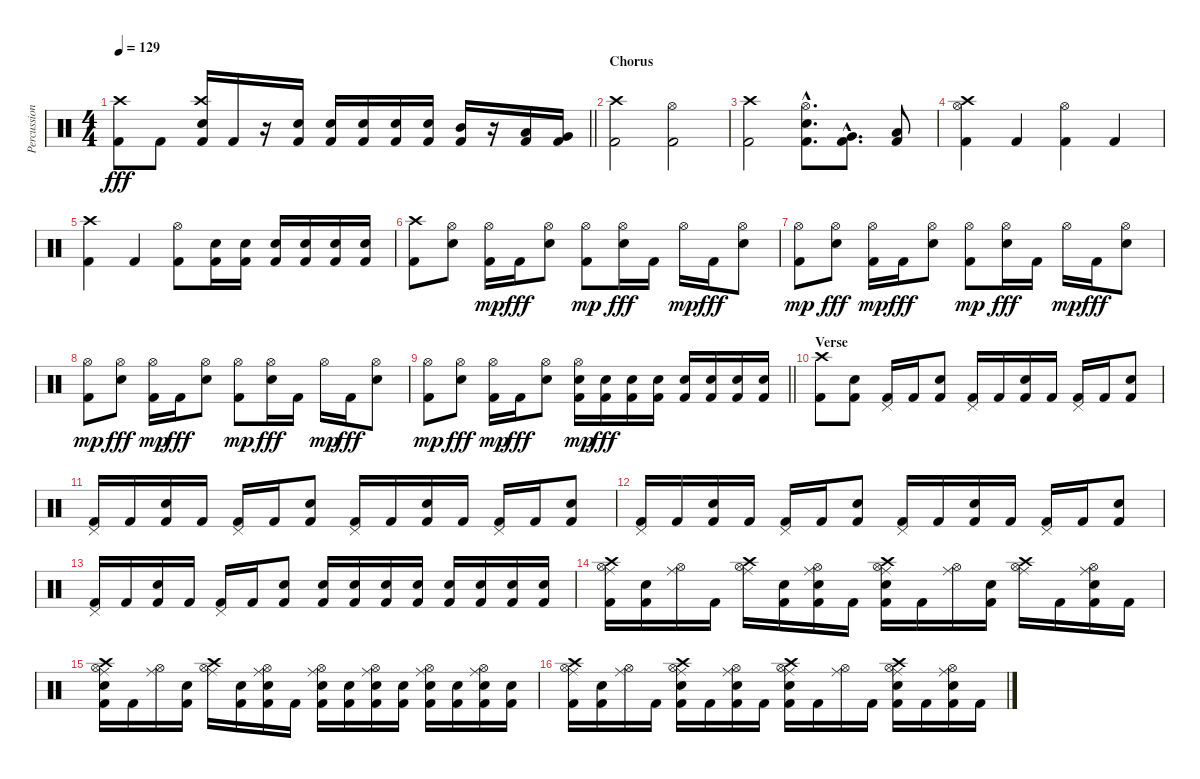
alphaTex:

\track ("Percussions" "Percussion") {instrument percussion}
\staff {score}
\articulation defaults
\ts (4 4)
\tempo 129
\clef neutral
\barLineRight lightlight
\ks c
("Kick (hit) 2" "Crash high (hit)").8{dy fff} "Kick (hit) 2".8 ("Kick (hit) 2" "Snare (hit) 2" "Crash high (hit)").16 "Kick (hit) 2".16 r.16 ("Kick (hit) 2" "Snare (hit) 2").16 ("Kick (hit) 2" "Snare (hit) 2").16 ("Kick (hit) 2" "Snare (hit) 2").16 ("Kick (hit) 2" "Snare (hit) 2").16 ("Kick (hit) 2" "Snare (hit) 2").16 ("Kick (hit) 2" "Mid Tom (hit)").16 r.16 ("Kick (hit) 2" "Low Tom (hit)").16 ("Kick (hit) 2" "Very Low Tom (hit)").16 |
\section ("" "Chorus")
("Kick (hit) 2" "Crash high (hit)").2 ("Kick (hit) 2" "Hi-Hat (open)").2 |
("Kick (hit) 2" "Crash high (hit)").2 ("Kick (hit) 2"{hac} "Snare (hit) 2"{hac} "Hi-Hat (open)"{hac}).8{d} ("Kick (hit) 2"{hac} "Very Low Tom (hit)"{hac}).8{d} ("Kick (hit) 2" "Low Tom (hit)").8 |
("Kick (hit) 2" "Crash high (hit)" "Hi-Hat (open)").4 "Kick (hit) 2".4 ("Kick (hit) 2" "Hi-Hat (open)").4 "Kick (hit) 2".4 |
("Kick (hit) 2" "Crash high (hit)").4 "Kick (hit) 2".4 ("Kick (hit) 2" "Hi-Hat (open)").8 ("Kick (hit) 2" "Snare (hit) 2").16 ("Kick (hit) 2" "Snare (hit) 2").16 ("Kick (hit) 2" "Snare (hit) 2").16 ("Kick (hit) 2" "Snare (hit) 2").16 ("Kick (hit) 2" "Snare (hit) 2").16 ("Kick (hit) 2" "Snare (hit) 2").16 |
("Kick (hit) 2" "Crash high (hit)").8 ("Snare (hit) 2" "Hi-Hat (open)").8 ("Kick (hit) 2" "Hi-Hat (open)").16{dy mp} "Kick (hit) 2".16{dy fff} ("Snare (hit) 2" "Hi-Hat (open)").8 ("Kick (hit) 2" "Hi-Hat (open)").8{dy mp} ("Snare (hit) 2" "Hi-Hat (open)").16{dy fff} "Kick (hit) 2".16 "Hi-Hat (open)".16{dy mp} "Kick (hit) 2".16{dy fff} ("Snare (hit) 2" "Hi-Hat (open)").8 |
("Kick (hit) 2" "Hi-Hat (open)").8{dy mp} ("Snare (hit) 2" "Hi-Hat (open)").8{dy fff} ("Kick (hit) 2" "Hi-Hat (open)").16{dy mp} "Kick (hit) 2".16{dy fff} ("Snare (hit) 2" "Hi-Hat (open)").8 ("Kick (hit) 2" "Hi-Hat (open)").8{dy mp} ("Snare (hit) 2" "Hi-Hat (open)").16{dy fff} "Kick (hit) 2".16 "Hi-Hat (open)".16{dy mp} "Kick (hit) 2".16{dy fff} ("Snare (hit) 2" "Hi-Hat (open)").8 |
("Kick (hit) 2" "Hi-Hat (open)").8{dy mp} ("Snare (hit) 2" "Hi-Hat (open)").8{dy fff} ("Kick (hit) 2" "Hi-Hat (open)").16{dy mp} "Kick (hit) 2".16{dy fff} ("Snare (hit) 2" "Hi-Hat (open)").8 ("Kick (hit) 2" "Hi-Hat (open)").8{dy mp} ("Snare (hit) 2" "Hi-Hat (open)").16{dy fff} "Kick (hit) 2".16 "Hi-Hat (open)".16{dy mp} "Kick (hit) 2".16{dy fff} ("Snare (hit) 2" "Hi-Hat (open)").8 |
\barLineRight lightlight
("Kick (hit) 2" "Hi-Hat (open)").8{dy mp} ("Snare (hit) 2" "Hi-Hat (open)").8{dy fff} ("Kick (hit) 2" "Hi-Hat (open)").16{dy mp} "Kick (hit) 2".16{dy fff} ("Snare (hit) 2" "Hi-Hat (open)").8 ("Kick (hit) 2" "Snare (hit) 2" "Hi-Hat (open)").16{dy mp} ("Kick (hit) 2" "Snare (hit) 2").16{dy fff} ("Kick (hit) 2" "Snare (hit) 2").16 ("Kick (hit) 2" "Snare (hit) 2").16 ("Kick (hit) 2" "Snare (hit) 2").16 ("Kick (hit) 2" "Snare (hit) 2").16 ("Kick (hit) 2" "Snare (hit) 2").16 ("Kick (hit) 2" "Snare (hit) 2").16 |
\section ("" "Verse")
("Kick (hit) 2" "Crash high (hit)").8 ("Kick (hit) 2" "Snare (hit) 2").8 ("Kick (hit) 2" "Pedal Hi-Hat (hit)").16 "Kick (hit) 2".16 ("Kick (hit) 2" "Snare (hit) 2").8 ("Kick (hit) 2" "Pedal Hi-Hat (hit)").16 "Kick (hit) 2".16 ("Kick (hit) 2" "Snare (hit) 2").16 "Kick (hit) 2".16 ("Kick (hit) 2" "Pedal Hi-Hat (hit)").16 "Kick (hit) 2".16 ("Kick (hit) 2" "Snare (hit) 2").8 |
("Kick (hit) 2" "Pedal Hi-Hat (hit)").16 "Kick (hit) 2".16 ("Kick (hit) 2" "Snare (hit) 2").16 "Kick (hit) 2".16 ("Kick (hit) 2" "Pedal Hi-Hat (hit)").16 "Kick (hit) 2".16 ("Kick (hit) 2" "Snare (hit) 2").8 ("Kick (hit) 2" "Pedal Hi-Hat (hit)").16 "Kick (hit) 2".16 ("Kick (hit) 2" "Snare (hit) 2").16 "Kick (hit) 2".16 ("Kick (hit) 2" "Pedal Hi-Hat (hit)").16 "Kick (hit) 2".16 ("Kick (hit) 2" "Snare (hit) 2").8 |
("Kick (hit) 2" "Pedal Hi-Hat (hit)").16 "Kick (hit) 2".16 ("Kick (hit) 2" "Snare (hit) 2").16 "Kick (hit) 2".16 ("Kick (hit) 2" "Pedal Hi-Hat (hit)").16 "Kick (hit) 2".16 ("Kick (hit) 2" "Snare (hit) 2").8 ("Kick (hit) 2" "Pedal Hi-Hat (hit)").16 "Kick (hit) 2".16 ("Kick (hit) 2" "Snare (hit) 2").16 "Kick (hit) 2".16 ("Kick (hit) 2" "Pedal Hi-Hat (hit)").16 "Kick (hit) 2".16 ("Kick (hit) 2" "Snare (hit) 2").8 |
("Kick (hit) 2" "Pedal Hi-Hat (hit)").16 "Kick (hit) 2".16 ("Kick (hit) 2" "Snare (hit) 2").16 "Kick (hit) 2".16 ("Kick (hit) 2" "Pedal Hi-Hat (hit)").16 "Kick (hit) 2".16 ("Kick (hit) 2" "Snare (hit) 2").8 ("Kick (hit) 2" "Snare (hit) 2").16 ("Kick (hit) 2" "Snare (hit) 2").16 ("Kick (hit) 2" "Snare (hit) 2").16 ("Kick (hit) 2" "Snare (hit) 2").16 ("Kick (hit) 2" "Snare (hit) 2").16 ("Kick (hit) 2" "Snare (hit) 2").16 ("Kick (hit) 2" "Snare (hit) 2").16 ("Kick (hit) 2" "Snare (hit) 2").16 |
("Kick (hit) 2" "Hi-Hat (open)" "Crash high (hit)" "Ride (middle)").16 ("Kick (hit) 2" "Snare (hit) 2").16 ("Hi-Hat (open)" "Ride (middle)").16 "Kick (hit) 2".16 ("Hi-Hat (open)" "Crash high (hit)" "Ride (middle)").16 ("Kick (hit) 2" "Snare (hit) 2").16 ("Kick (hit) 2" "Snare (hit) 2" "Hi-Hat (open)" "Ride (middle)").16 "Kick (hit) 2".16 ("Kick (hit) 2" "Snare (hit) 2" "Hi-Hat (open)" "Crash high (hit)" "Ride (middle)").16 "Kick (hit) 2".16 ("Hi-Hat (open)" "Ride (middle)").16 ("Kick (hit) 2" "Snare (hit) 2").16 ("Hi-Hat (open)" "Crash high (hit)" "Ride (middle)").16 "Kick (hit) 2".16 ("Kick (hit) 2" "Snare (hit) 2" "Hi-Hat (open)" "Ride (middle)").16 "Kick (hit) 2".16 |
("Kick (hit) 2" "Snare (hit) 2" "Hi-Hat (open)" "Crash high (hit)" "Ride (middle)").16 "Kick (hit) 2".16 ("Hi-Hat (open)" "Ride (middle)").16 ("Kick (hit) 2" "Snare (hit) 2").16 ("Hi-Hat (open)" "Crash high (hit)" "Ride (middle)").16 ("Kick (hit) 2" "Snare (hit) 2").16 ("Kick (hit) 2" "Snare (hit) 2" "Hi-Hat (open)" "Ride (middle)").16 "Kick (hit) 2".16 ("Kick (hit) 2" "Snare (hit) 2" "Hi-Hat (open)" "Ride (middle)").16 ("Kick (hit) 2" "Snare (hit) 2").16 ("Kick (hit) 2" "Snare (hit) 2" "Hi-Hat (open)" "Ride (middle)").16 ("Kick (hit) 2" "Snare (hit) 2").16 ("Kick (hit) 2" "Snare (hit) 2" "Hi-Hat (open)" "Ride (middle)").16 ("Kick (hit) 2" "Snare (hit) 2").16 ("Kick (hit) 2" "Snare (hit) 2" "Hi-Hat (open)" "Ride (middle)").16 ("Kick (hit) 2" "Snare (hit) 2").16 |
("Kick (hit) 2" "Hi-Hat (open)" "Crash high (hit)" "Ride (middle)").16 ("Kick (hit) 2" "Snare (hit) 2").16 ("Hi-Hat (open)" "Ride (middle)").16 "Kick (hit) 2".16 ("Kick (hit) 2" "Snare (hit) 2" "Hi-Hat (open)" "Crash high (hit)" "Ride (middle)").16 "Kick (hit) 2".16 ("Kick (hit) 2" "Snare (hit) 2" "Hi-Hat (open)" "Ride (middle)").16 "Kick (hit) 2".16 ("Kick (hit) 2" "Snare (hit) 2" "Hi-Hat (open)" "Crash high (hit)" "Ride (middle)").16 "Kick (hit) 2".16 ("Hi-Hat (open)" "Ride (middle)").16 "Kick (hit) 2".16 ("Kick (hit) 2" "Snare (hit) 2" "Hi-Hat (open)" "Crash high (hit)" "Ride (middle)").16 "Kick (hit) 2".16 ("Kick (hit) 2" "Snare (hit) 2" "Hi-Hat (open)" "Ride (middle)").16 "Kick (hit) 2".16
